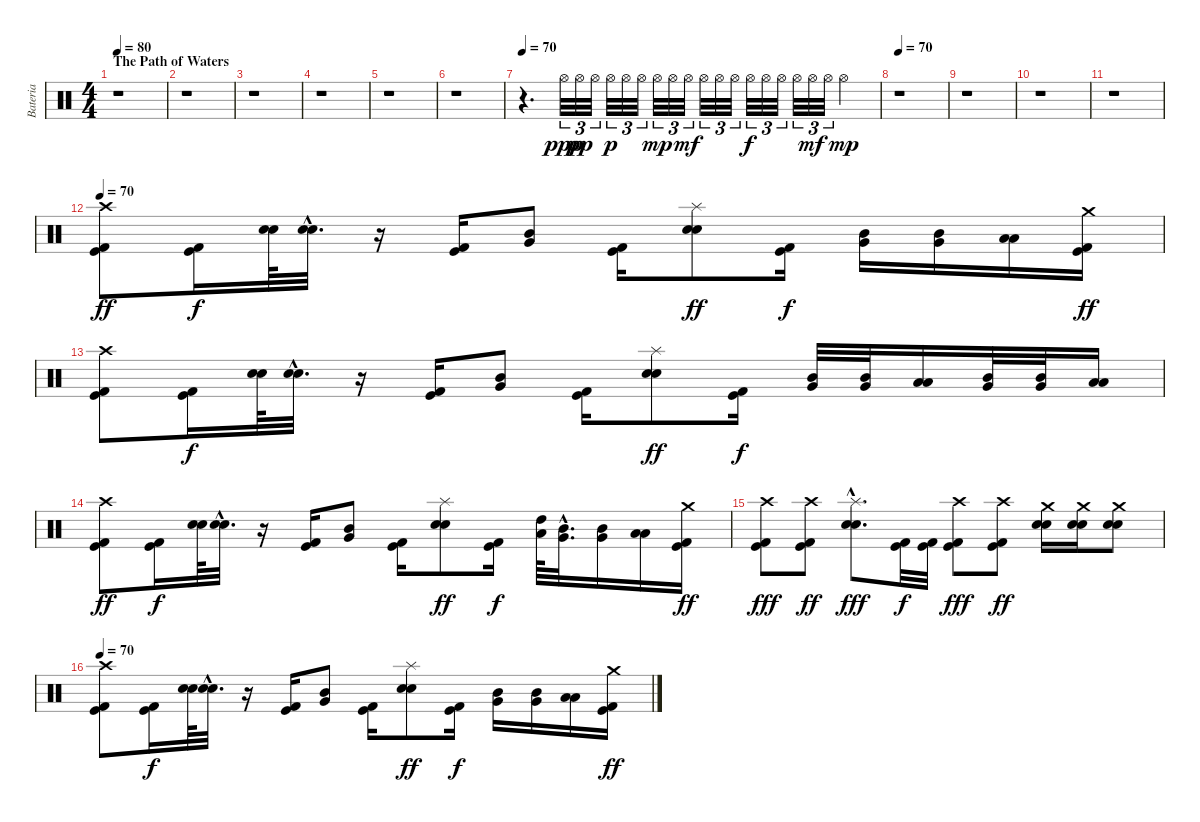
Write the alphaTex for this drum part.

\track ("Bateria" "Bateria") {instrument percussion}
\staff {score}
\articulation defaults
\ts (4 4)
\section ("" "The Path of Waters")
\tempo 80
\clef neutral
\ks c
r.1{dy f} |
r.1 |
r.1 |
r.1 |
r.1 |
r.1 |
\tempo 70
r.4{d} "Hi-Hat (open)".32{tu (3 2) dy ppp} "Hi-Hat (open)".32{tu (3 2) dy pp} "Hi-Hat (open)".32{tu (3 2)} "Hi-Hat (open)".32{tu (3 2) dy p} "Hi-Hat (open)".32{tu (3 2)} "Hi-Hat (open)".32{tu (3 2)} "Hi-Hat (open)".32{tu (3 2) dy mp} "Hi-Hat (open)".32{tu (3 2)} "Hi-Hat (open)".32{tu (3 2) dy mf} "Hi-Hat (open)".32{tu (3 2)} "Hi-Hat (open)".32{tu (3 2)} "Hi-Hat (open)".32{tu (3 2)} "Hi-Hat (open)".32{tu (3 2) dy f} "Hi-Hat (open)".32{tu (3 2)} "Hi-Hat (open)".32{tu (3 2)} "Hi-Hat (open)".32{tu (3 2)} "Hi-Hat (open)".32{tu (3 2) dy mf} "Hi-Hat (open)".32{tu (3 2)} "Hi-Hat (open)".4{dy mp} |
\tempo 70
r.1 |
r.1 |
r.1 |
r.1 |
\tempo 70
("Crash high (hit)" "Kick (hit) 2" "Kick (hit)").8{dy ff} ("Kick (hit) 2" "Kick (hit)").16{dy f} ("Electric Snare (hit)" "Snare (hit) 2").64 ("Electric Snare (hit)"{hac} "Snare (hit) 2"{hac}).32{d} r.16 ("Kick (hit) 2" "Kick (hit)").16 ("Mid Tom (hit)" "Very Low Tom (hit)").8 ("Kick (hit) 2" "Kick (hit)").16 ("Splash (hit)" "Electric Snare (hit)" "Snare (hit) 2").8{dy ff} ("Kick (hit) 2" "Kick (hit)").16{dy f} ("Mid Tom (hit)" "Very Low Tom (hit)").16 ("Mid Tom (hit)" "Very Low Tom (hit)").16 ("Low Tom (hit)" "Low Floor Tom (hit)").16 ("Crash medium (hit)" "Kick (hit) 2" "Kick (hit)").16{dy ff} |
("Crash high (hit)" "Kick (hit) 2" "Kick (hit)").8 ("Kick (hit) 2" "Kick (hit)").16{dy f} ("Electric Snare (hit)" "Snare (hit) 2").64 ("Electric Snare (hit)"{hac} "Snare (hit) 2"{hac}).32{d} r.16 ("Kick (hit) 2" "Kick (hit)").16 ("Mid Tom (hit)" "Very Low Tom (hit)").8 ("Kick (hit) 2" "Kick (hit)").16 ("Splash (hit)" "Electric Snare (hit)" "Snare (hit) 2").8{dy ff} ("Kick (hit) 2" "Kick (hit)").16{dy f} ("Mid Tom (hit)" "Very Low Tom (hit)").32 ("Mid Tom (hit)" "Very Low Tom (hit)").32 ("Low Tom (hit)" "Low Floor Tom (hit)").16 ("Mid Tom (hit)" "Very Low Tom (hit)").32 ("Mid Tom (hit)" "Very Low Tom (hit)").32 ("Low Tom (hit)" "Low Floor Tom (hit)").16 |
("Crash high (hit)" "Kick (hit) 2" "Kick (hit)").8{dy ff} ("Kick (hit) 2" "Kick (hit)").16{dy f} ("Electric Snare (hit)" "Snare (hit) 2").64 ("Electric Snare (hit)"{hac} "Snare (hit) 2"{hac}).32{d} r.16 ("Kick (hit) 2" "Kick (hit)").16 ("Mid Tom (hit)" "Very Low Tom (hit)").8 ("Kick (hit) 2" "Kick (hit)").16 ("Splash (hit)" "Electric Snare (hit)" "Snare (hit) 2").8{dy ff} ("Kick (hit) 2" "Kick (hit)").16{dy f} ("High Tom (hit)" "Low Tom (hit)").64 ("Mid Tom (hit)"{hac} "Very Low Tom (hit)"{hac}).32{d} ("Mid Tom (hit)" "Very Low Tom (hit)").16 ("Low Tom (hit)" "Low Floor Tom (hit)").16 ("Crash medium (hit)" "Kick (hit) 2" "Kick (hit)").16{dy ff} |
("Crash high (hit)" "Kick (hit) 2" "Kick (hit)").8{dy fff} ("Crash high (hit)" "Kick (hit) 2" "Kick (hit)").8{dy ff} ("Splash (hit)"{hac} "Electric Snare (hit)"{hac} "Snare (hit) 2"{hac}).8{d dy fff} ("Kick (hit) 2" "Kick (hit)").32{dy f} ("Kick (hit) 2" "Kick (hit)").32 ("Crash high (hit)" "Kick (hit) 2" "Kick (hit)").8{dy fff} ("Crash high (hit)" "Kick (hit) 2" "Kick (hit)").8{dy ff} ("Crash medium (hit)" "Electric Snare (hit)" "Snare (hit) 2").16 ("Crash medium (hit)" "Electric Snare (hit)" "Snare (hit) 2").16 ("Crash medium (hit)" "Electric Snare (hit)" "Snare (hit) 2").8 |
\tempo 70
("Crash high (hit)" "Kick (hit) 2" "Kick (hit)").8 ("Kick (hit) 2" "Kick (hit)").16{dy f} ("Electric Snare (hit)" "Snare (hit) 2").64 ("Electric Snare (hit)"{hac} "Snare (hit) 2"{hac}).32{d} r.16 ("Kick (hit) 2" "Kick (hit)").16 ("Mid Tom (hit)" "Very Low Tom (hit)").8 ("Kick (hit) 2" "Kick (hit)").16 ("Splash (hit)" "Electric Snare (hit)" "Snare (hit) 2").8{dy ff} ("Kick (hit) 2" "Kick (hit)").16{dy f} ("Mid Tom (hit)" "Very Low Tom (hit)").16 ("Mid Tom (hit)" "Very Low Tom (hit)").16 ("Low Tom (hit)" "Low Floor Tom (hit)").16 ("Crash medium (hit)" "Kick (hit) 2" "Kick (hit)").16{dy ff}
